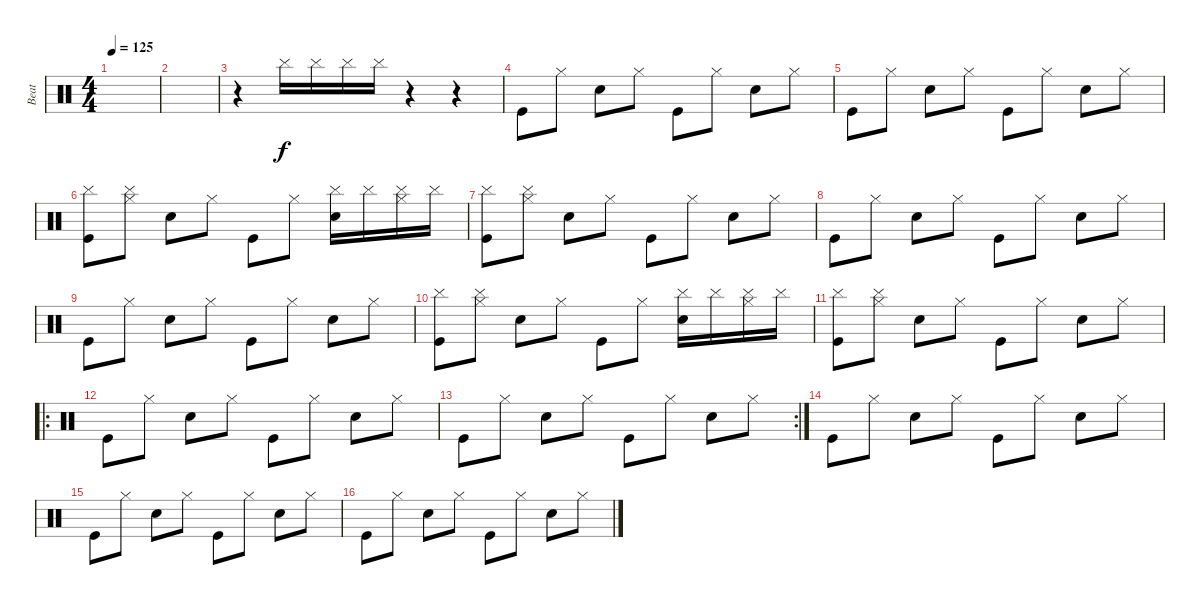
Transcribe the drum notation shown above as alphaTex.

\track ("Beat" "Beat") {instrument percussion}
\staff {score}
\articulation defaults
\ts (4 4)
\tempo 125
\clef neutral
\ks c
|
|
r.4 "Cymbal (hit)".16 "Cymbal (hit)".16 "Cymbal (hit)".16 "Cymbal (hit)".16 r.4 r.4 |
"Kick (hit)".8 "Hi-Hat (closed)".8 "Hand Clap (hit)".8 "Hi-Hat (closed)".8 "Kick (hit)".8 "Hi-Hat (closed)".8 "Hand Clap (hit)".8 "Hi-Hat (closed)".8 |
"Kick (hit)".8 "Hi-Hat (closed)".8 "Hand Clap (hit)".8 "Hi-Hat (closed)".8 "Kick (hit)".8 "Hi-Hat (closed)".8 "Hand Clap (hit)".8 "Hi-Hat (closed)".8 |
("Kick (hit)" "Cymbal (hit)").8 ("Hi-Hat (closed)" "Cymbal (hit)").8 "Hand Clap (hit)".8 "Hi-Hat (closed)".8 "Kick (hit)".8 "Hi-Hat (closed)".8 ("Hand Clap (hit)" "Cymbal (hit)").16 "Cymbal (hit)".16 ("Hi-Hat (closed)" "Cymbal (hit)").16 "Cymbal (hit)".16 |
("Kick (hit)" "Cymbal (hit)").8 ("Hi-Hat (closed)" "Cymbal (hit)").8 "Hand Clap (hit)".8 "Hi-Hat (closed)".8 "Kick (hit)".8 "Hi-Hat (closed)".8 "Hand Clap (hit)".8 "Hi-Hat (closed)".8 |
"Kick (hit)".8 "Hi-Hat (closed)".8 "Hand Clap (hit)".8 "Hi-Hat (closed)".8 "Kick (hit)".8 "Hi-Hat (closed)".8 "Hand Clap (hit)".8 "Hi-Hat (closed)".8 |
"Kick (hit)".8 "Hi-Hat (closed)".8 "Hand Clap (hit)".8 "Hi-Hat (closed)".8 "Kick (hit)".8 "Hi-Hat (closed)".8 "Hand Clap (hit)".8 "Hi-Hat (closed)".8 |
("Kick (hit)" "Cymbal (hit)").8 ("Hi-Hat (closed)" "Cymbal (hit)").8 "Hand Clap (hit)".8 "Hi-Hat (closed)".8 "Kick (hit)".8 "Hi-Hat (closed)".8 ("Hand Clap (hit)" "Cymbal (hit)").16 "Cymbal (hit)".16 ("Hi-Hat (closed)" "Cymbal (hit)").16 "Cymbal (hit)".16 |
("Kick (hit)" "Cymbal (hit)").8 ("Hi-Hat (closed)" "Cymbal (hit)").8 "Hand Clap (hit)".8 "Hi-Hat (closed)".8 "Kick (hit)".8 "Hi-Hat (closed)".8 "Hand Clap (hit)".8 "Hi-Hat (closed)".8 |
\ro "Kick (hit)".8 "Hi-Hat (closed)".8 "Hand Clap (hit)".8 "Hi-Hat (closed)".8 "Kick (hit)".8 "Hi-Hat (closed)".8 "Hand Clap (hit)".8 "Hi-Hat (closed)".8
|
\rc 2 "Kick (hit)".8 "Hi-Hat (closed)".8 "Hand Clap (hit)".8 "Hi-Hat (closed)".8 "Kick (hit)".8 "Hi-Hat (closed)".8 "Hand Clap (hit)".8 "Hi-Hat (closed)".8
|
"Kick (hit)".8 "Hi-Hat (closed)".8 "Hand Clap (hit)".8 "Hi-Hat (closed)".8 "Kick (hit)".8 "Hi-Hat (closed)".8 "Hand Clap (hit)".8 "Hi-Hat (closed)".8 |
"Kick (hit)".8 "Hi-Hat (closed)".8 "Hand Clap (hit)".8 "Hi-Hat (closed)".8 "Kick (hit)".8 "Hi-Hat (closed)".8 "Hand Clap (hit)".8 "Hi-Hat (closed)".8 |
"Kick (hit)".8 "Hi-Hat (closed)".8 "Hand Clap (hit)".8 "Hi-Hat (closed)".8 "Kick (hit)".8 "Hi-Hat (closed)".8 "Hand Clap (hit)".8 "Hi-Hat (closed)".8
